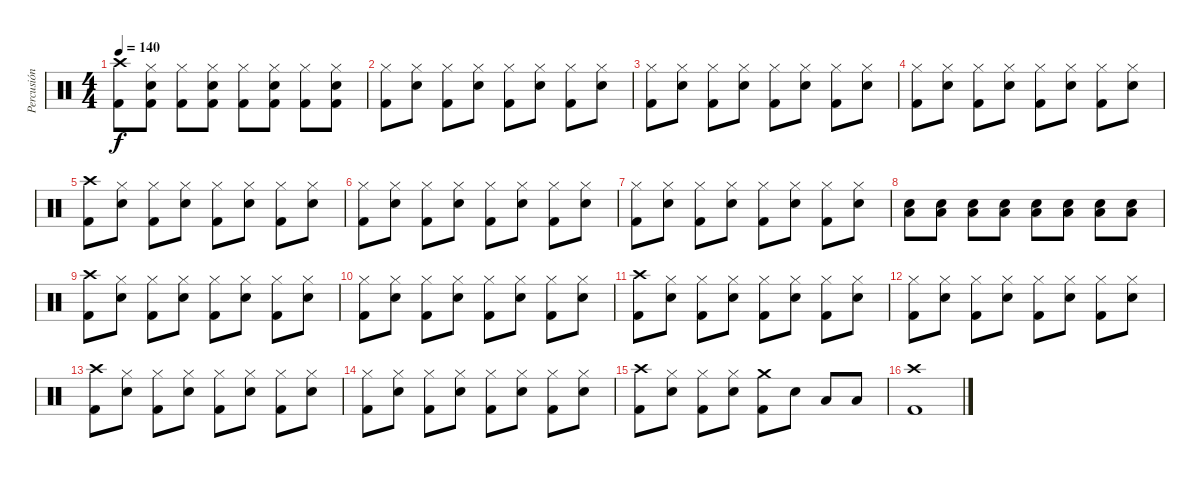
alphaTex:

\track ("Percusión" "Percusión") {instrument percussion}
\staff {score}
\articulation defaults
\ts (4 4)
\tempo 140
\clef neutral
\ks c
("Crash high (hit)" "Kick (hit) 2").8{dy f} ("Hi-Hat (closed)" "Snare (hit) 2" "Kick (hit) 2").8 ("Hi-Hat (closed)" "Kick (hit) 2").8 ("Hi-Hat (closed)" "Snare (hit) 2" "Kick (hit) 2").8 ("Hi-Hat (closed)" "Kick (hit) 2").8 ("Hi-Hat (closed)" "Snare (hit) 2" "Kick (hit) 2").8 ("Hi-Hat (closed)" "Kick (hit) 2").8 ("Hi-Hat (closed)" "Snare (hit) 2" "Kick (hit) 2").8 |
("Hi-Hat (closed)" "Kick (hit) 2").8 ("Hi-Hat (closed)" "Snare (hit) 2").8 ("Hi-Hat (closed)" "Kick (hit) 2").8 ("Hi-Hat (closed)" "Snare (hit) 2").8 ("Hi-Hat (closed)" "Kick (hit) 2").8 ("Hi-Hat (closed)" "Snare (hit) 2").8 ("Hi-Hat (closed)" "Kick (hit) 2").8 ("Hi-Hat (closed)" "Snare (hit) 2").8 |
("Hi-Hat (closed)" "Kick (hit) 2").8 ("Hi-Hat (closed)" "Snare (hit) 2").8 ("Hi-Hat (closed)" "Kick (hit) 2").8 ("Hi-Hat (closed)" "Snare (hit) 2").8 ("Hi-Hat (closed)" "Kick (hit) 2").8 ("Hi-Hat (closed)" "Snare (hit) 2").8 ("Hi-Hat (closed)" "Kick (hit) 2").8 ("Hi-Hat (closed)" "Snare (hit) 2").8 |
("Hi-Hat (closed)" "Kick (hit) 2").8 ("Hi-Hat (closed)" "Snare (hit) 2").8 ("Hi-Hat (closed)" "Kick (hit) 2").8 ("Hi-Hat (closed)" "Snare (hit) 2").8 ("Hi-Hat (closed)" "Kick (hit) 2").8 ("Hi-Hat (closed)" "Snare (hit) 2").8 ("Hi-Hat (closed)" "Kick (hit) 2").8 ("Hi-Hat (closed)" "Snare (hit) 2").8 |
("Crash high (hit)" "Kick (hit) 2").8 ("Hi-Hat (closed)" "Snare (hit) 2").8 ("Hi-Hat (closed)" "Kick (hit) 2").8 ("Hi-Hat (closed)" "Snare (hit) 2").8 ("Hi-Hat (closed)" "Kick (hit) 2").8 ("Hi-Hat (closed)" "Snare (hit) 2").8 ("Hi-Hat (closed)" "Kick (hit) 2").8 ("Hi-Hat (closed)" "Snare (hit) 2").8 |
("Hi-Hat (closed)" "Kick (hit) 2").8 ("Hi-Hat (closed)" "Snare (hit) 2").8 ("Hi-Hat (closed)" "Kick (hit) 2").8 ("Hi-Hat (closed)" "Snare (hit) 2").8 ("Hi-Hat (closed)" "Kick (hit) 2").8 ("Hi-Hat (closed)" "Snare (hit) 2").8 ("Hi-Hat (closed)" "Kick (hit) 2").8 ("Hi-Hat (closed)" "Snare (hit) 2").8 |
("Hi-Hat (closed)" "Kick (hit) 2").8 ("Hi-Hat (closed)" "Snare (hit) 2").8 ("Hi-Hat (closed)" "Kick (hit) 2").8 ("Hi-Hat (closed)" "Snare (hit) 2").8 ("Hi-Hat (closed)" "Kick (hit) 2").8 ("Hi-Hat (closed)" "Snare (hit) 2").8 ("Hi-Hat (closed)" "Kick (hit) 2").8 ("Hi-Hat (closed)" "Snare (hit) 2").8 |
("Low Floor Tom (hit)" "Snare (hit) 2").8 ("Low Floor Tom (hit)" "Snare (hit) 2").8 ("Low Floor Tom (hit)" "Snare (hit) 2").8 ("Low Floor Tom (hit)" "Snare (hit) 2").8 ("Low Floor Tom (hit)" "Snare (hit) 2").8 ("Low Floor Tom (hit)" "Snare (hit) 2").8 ("Low Floor Tom (hit)" "Snare (hit) 2").8 ("Low Floor Tom (hit)" "Snare (hit) 2").8 |
("Crash high (hit)" "Kick (hit) 2").8 ("Hi-Hat (closed)" "Snare (hit) 2").8 ("Hi-Hat (closed)" "Kick (hit) 2").8 ("Hi-Hat (closed)" "Snare (hit) 2").8 ("Hi-Hat (closed)" "Kick (hit) 2").8 ("Hi-Hat (closed)" "Snare (hit) 2").8 ("Hi-Hat (closed)" "Kick (hit) 2").8 ("Hi-Hat (closed)" "Snare (hit) 2").8 |
("Hi-Hat (closed)" "Kick (hit) 2").8 ("Hi-Hat (closed)" "Snare (hit) 2").8 ("Hi-Hat (closed)" "Kick (hit) 2").8 ("Hi-Hat (closed)" "Snare (hit) 2").8 ("Hi-Hat (closed)" "Kick (hit) 2").8 ("Hi-Hat (closed)" "Snare (hit) 2").8 ("Hi-Hat (closed)" "Kick (hit) 2").8 ("Hi-Hat (closed)" "Snare (hit) 2").8 |
("Crash high (hit)" "Kick (hit) 2").8 ("Hi-Hat (closed)" "Snare (hit) 2").8 ("Hi-Hat (closed)" "Kick (hit) 2").8 ("Hi-Hat (closed)" "Snare (hit) 2").8 ("Hi-Hat (closed)" "Kick (hit) 2").8 ("Hi-Hat (closed)" "Snare (hit) 2").8 ("Hi-Hat (closed)" "Kick (hit) 2").8 ("Hi-Hat (closed)" "Snare (hit) 2").8 |
("Hi-Hat (closed)" "Kick (hit) 2").8 ("Hi-Hat (closed)" "Snare (hit) 2").8 ("Hi-Hat (closed)" "Kick (hit) 2").8 ("Hi-Hat (closed)" "Snare (hit) 2").8 ("Hi-Hat (closed)" "Kick (hit) 2").8 ("Hi-Hat (closed)" "Snare (hit) 2").8 ("Hi-Hat (closed)" "Kick (hit) 2").8 ("Hi-Hat (closed)" "Snare (hit) 2").8 |
("Crash high (hit)" "Kick (hit) 2").8 ("Hi-Hat (closed)" "Snare (hit) 2").8 ("Hi-Hat (closed)" "Kick (hit) 2").8 ("Hi-Hat (closed)" "Snare (hit) 2").8 ("Hi-Hat (closed)" "Kick (hit) 2").8 ("Hi-Hat (closed)" "Snare (hit) 2").8 ("Hi-Hat (closed)" "Kick (hit) 2").8 ("Hi-Hat (closed)" "Snare (hit) 2").8 |
("Hi-Hat (closed)" "Kick (hit) 2").8 ("Hi-Hat (closed)" "Snare (hit) 2").8 ("Hi-Hat (closed)" "Kick (hit) 2").8 ("Hi-Hat (closed)" "Snare (hit) 2").8 ("Hi-Hat (closed)" "Kick (hit) 2").8 ("Hi-Hat (closed)" "Snare (hit) 2").8 ("Hi-Hat (closed)" "Kick (hit) 2").8 ("Hi-Hat (closed)" "Snare (hit) 2").8 |
("Crash high (hit)" "Kick (hit) 2").8 ("Hi-Hat (closed)" "Snare (hit) 2").8 ("Hi-Hat (closed)" "Kick (hit) 2").8 ("Hi-Hat (closed)" "Snare (hit) 2").8 ("Crash medium (hit)" "Kick (hit) 2").8 "Snare (hit) 2".8 "Low Tom (hit)".8 "Low Floor Tom (hit)".8 |
("Crash high (hit)" "Kick (hit) 2").1
